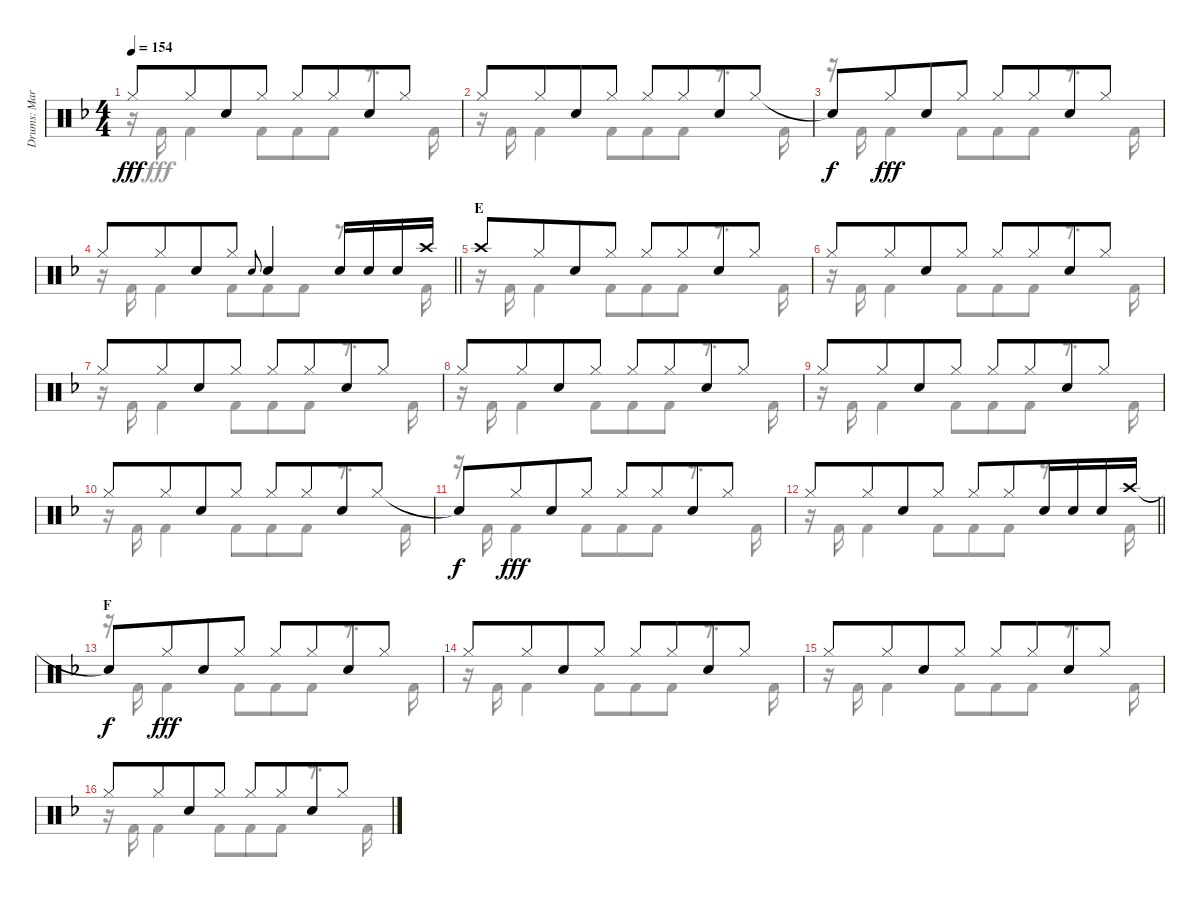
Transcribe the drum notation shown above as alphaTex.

\track ("Drums: Mark" "Drums: Mar") {instrument percussion}
\staff {score}
\articulation defaults
\voice
\ts (4 4)
\tempo 154
\clef neutral
\ks f "Hi-Hat (closed)".8{dy fff} "Hi-Hat (closed)".8{beam merge} "Snare (hit) 2".8 "Hi-Hat (closed)".8 "Hi-Hat (closed)".8 "Hi-Hat (closed)".8{beam merge} "Snare (hit) 2".8 "Hi-Hat (closed)".8
|
"Hi-Hat (closed)".8 "Hi-Hat (closed)".8{beam merge} "Snare (hit) 2".8 "Hi-Hat (closed)".8 "Hi-Hat (closed)".8 "Hi-Hat (closed)".8{beam merge} "Snare (hit) 2".8 "Hi-Hat (closed)".8 |
"Snare (hit)"{t}.8{dy f} "Hi-Hat (closed)".8{dy fff beam merge} "Snare (hit) 2".8 "Hi-Hat (closed)".8 "Hi-Hat (closed)".8 "Hi-Hat (closed)".8{beam merge} "Snare (hit) 2".8 "Hi-Hat (closed)".8 |
\barLineRight lightlight "Hi-Hat (closed)".8 "Hi-Hat (closed)".8{beam merge} "Snare (hit) 2".8 "Hi-Hat (closed)".8 "Electric Snare (hit)".8{gr onbeat} "Snare (hit) 2".4{beam merge} "Snare (hit) 2".16 "Snare (hit) 2".16 "Snare (hit) 2".16 "Crash high (hit)".16
|
\section ("" "E")
"Crash high (hit)".8 "Hi-Hat (closed)".8{beam merge} "Snare (hit) 2".8 "Hi-Hat (closed)".8 "Hi-Hat (closed)".8 "Hi-Hat (closed)".8{beam merge} "Snare (hit) 2".8 "Hi-Hat (closed)".8 |
"Hi-Hat (closed)".8 "Hi-Hat (closed)".8{beam merge} "Snare (hit) 2".8 "Hi-Hat (closed)".8 "Hi-Hat (closed)".8 "Hi-Hat (closed)".8{beam merge} "Snare (hit) 2".8 "Hi-Hat (closed)".8 |
"Hi-Hat (closed)".8 "Hi-Hat (closed)".8{beam merge} "Snare (hit) 2".8 "Hi-Hat (closed)".8 "Hi-Hat (closed)".8 "Hi-Hat (closed)".8{beam merge} "Snare (hit) 2".8 "Hi-Hat (closed)".8 |
"Hi-Hat (closed)".8 "Hi-Hat (closed)".8{beam merge} "Snare (hit) 2".8 "Hi-Hat (closed)".8 "Hi-Hat (closed)".8 "Hi-Hat (closed)".8{beam merge} "Snare (hit) 2".8 "Hi-Hat (closed)".8 |
"Hi-Hat (closed)".8 "Hi-Hat (closed)".8{beam merge} "Snare (hit) 2".8 "Hi-Hat (closed)".8 "Hi-Hat (closed)".8 "Hi-Hat (closed)".8{beam merge} "Snare (hit) 2".8 "Hi-Hat (closed)".8 |
"Hi-Hat (closed)".8 "Hi-Hat (closed)".8{beam merge} "Snare (hit) 2".8 "Hi-Hat (closed)".8 "Hi-Hat (closed)".8 "Hi-Hat (closed)".8{beam merge} "Snare (hit) 2".8 "Hi-Hat (closed)".8 |
"Snare (hit)"{t}.8{dy f} "Hi-Hat (closed)".8{dy fff beam merge} "Snare (hit) 2".8 "Hi-Hat (closed)".8 "Hi-Hat (closed)".8 "Hi-Hat (closed)".8{beam merge} "Snare (hit) 2".8 "Hi-Hat (closed)".8 |
\barLineRight lightlight "Hi-Hat (closed)".8 "Hi-Hat (closed)".8{beam merge} "Snare (hit) 2".8 "Hi-Hat (closed)".8 "Hi-Hat (closed)".8 "Hi-Hat (closed)".8{beam merge} "Snare (hit) 2".16 "Snare (hit) 2".16 "Snare (hit) 2".16 "Crash high (hit)".16
|
\section ("" "F")
"Snare (hit)"{t}.8{dy f} "Hi-Hat (closed)".8{dy fff beam merge} "Snare (hit) 2".8 "Hi-Hat (closed)".8 "Hi-Hat (closed)".8 "Hi-Hat (closed)".8{beam merge} "Snare (hit) 2".8 "Hi-Hat (closed)".8 |
"Hi-Hat (closed)".8 "Hi-Hat (closed)".8{beam merge} "Snare (hit) 2".8 "Hi-Hat (closed)".8 "Hi-Hat (closed)".8 "Hi-Hat (closed)".8{beam merge} "Snare (hit) 2".8 "Hi-Hat (closed)".8 |
"Hi-Hat (closed)".8 "Hi-Hat (closed)".8{beam merge} "Snare (hit) 2".8 "Hi-Hat (closed)".8 "Hi-Hat (closed)".8 "Hi-Hat (closed)".8{beam merge} "Snare (hit) 2".8 "Hi-Hat (closed)".8 |
"Hi-Hat (closed)".8 "Hi-Hat (closed)".8{beam merge} "Snare (hit) 2".8 "Hi-Hat (closed)".8 "Hi-Hat (closed)".8 "Hi-Hat (closed)".8{beam merge} "Snare (hit) 2".8 "Hi-Hat (closed)".8
\voice
\clef neutral
\ottava regular
\simile none
\ks f
r.16{dy fff} "Kick (hit) 2".16 "Kick (hit) 2".4 "Kick (hit) 2".8{beam merge} "Kick (hit) 2".8 "Kick (hit) 2".8 r.8{d} "Kick (hit) 2".16 |
r.16 "Kick (hit) 2".16 "Kick (hit) 2".4 "Kick (hit) 2".8{beam merge} "Kick (hit) 2".8 "Kick (hit) 2".8 r.8{d} "Kick (hit) 2".16 |
r.16 "Kick (hit) 2".16 "Kick (hit) 2".4 "Kick (hit) 2".8{beam merge} "Kick (hit) 2".8 "Kick (hit) 2".8 r.8{d} "Kick (hit) 2".16 |
\barLineRight lightlight
r.16 "Kick (hit) 2".16 "Kick (hit) 2".4 "Kick (hit) 2".8{beam merge} "Kick (hit) 2".8 "Kick (hit) 2".8 r.8{d} "Kick (hit) 2".16 |
r.16 "Kick (hit) 2".16 "Kick (hit) 2".4 "Kick (hit) 2".8{beam merge} "Kick (hit) 2".8 "Kick (hit) 2".8 r.8{d} "Kick (hit) 2".16 |
r.16 "Kick (hit) 2".16 "Kick (hit) 2".4 "Kick (hit) 2".8{beam merge} "Kick (hit) 2".8 "Kick (hit) 2".8 r.8{d} "Kick (hit) 2".16 |
r.16 "Kick (hit) 2".16 "Kick (hit) 2".4 "Kick (hit) 2".8{beam merge} "Kick (hit) 2".8 "Kick (hit) 2".8 r.8{d} "Kick (hit) 2".16 |
r.16 "Kick (hit) 2".16 "Kick (hit) 2".4 "Kick (hit) 2".8{beam merge} "Kick (hit) 2".8 "Kick (hit) 2".8 r.8{d} "Kick (hit) 2".16 |
r.16 "Kick (hit) 2".16 "Kick (hit) 2".4 "Kick (hit) 2".8{beam merge} "Kick (hit) 2".8 "Kick (hit) 2".8 r.8{d} "Kick (hit) 2".16 |
r.16 "Kick (hit) 2".16 "Kick (hit) 2".4 "Kick (hit) 2".8{beam merge} "Kick (hit) 2".8 "Kick (hit) 2".8 r.8{d} "Kick (hit) 2".16 |
r.16 "Kick (hit) 2".16 "Kick (hit) 2".4 "Kick (hit) 2".8{beam merge} "Kick (hit) 2".8 "Kick (hit) 2".8 r.8{d} "Kick (hit) 2".16 |
\barLineRight lightlight
r.16 "Kick (hit) 2".16 "Kick (hit) 2".4 "Kick (hit) 2".8{beam merge} "Kick (hit) 2".8 "Kick (hit) 2".8 r.8{d} "Kick (hit) 2".16 |
r.16 "Kick (hit) 2".16 "Kick (hit) 2".4 "Kick (hit) 2".8{beam merge} "Kick (hit) 2".8 "Kick (hit) 2".8 r.8{d} "Kick (hit) 2".16 |
r.16 "Kick (hit) 2".16 "Kick (hit) 2".4 "Kick (hit) 2".8{beam merge} "Kick (hit) 2".8 "Kick (hit) 2".8 r.8{d} "Kick (hit) 2".16 |
r.16 "Kick (hit) 2".16 "Kick (hit) 2".4 "Kick (hit) 2".8{beam merge} "Kick (hit) 2".8 "Kick (hit) 2".8 r.8{d} "Kick (hit) 2".16 |
r.16 "Kick (hit) 2".16 "Kick (hit) 2".4 "Kick (hit) 2".8{beam merge} "Kick (hit) 2".8 "Kick (hit) 2".8 r.8{d} "Kick (hit) 2".16
